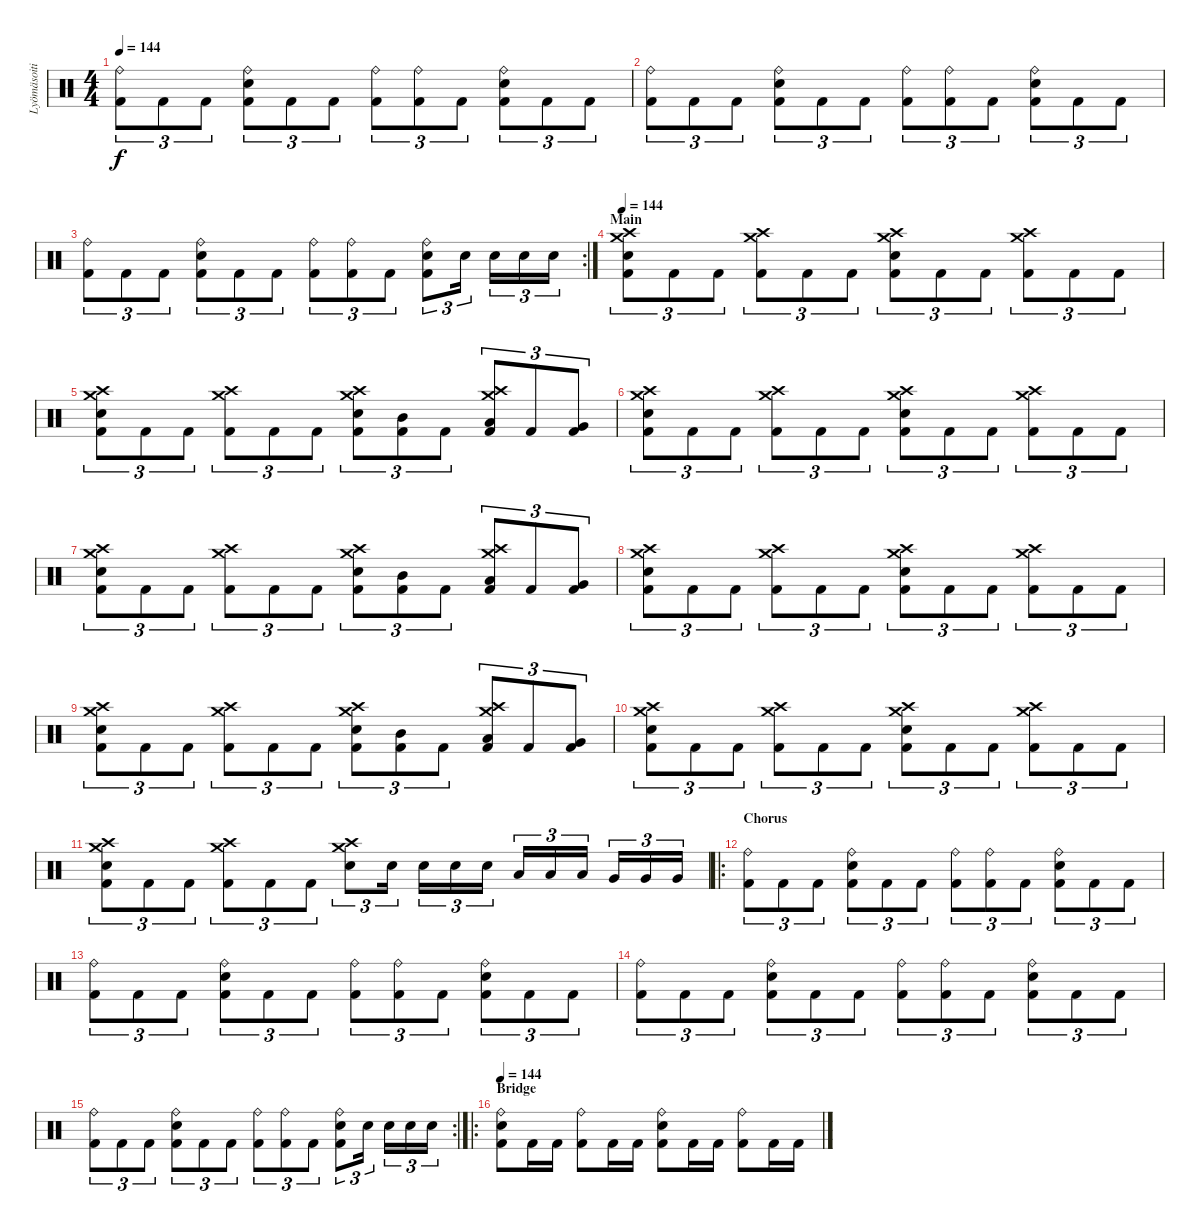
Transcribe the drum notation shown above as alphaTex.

\track ("Lyömäsoitin" "Lyömäsoiti") {instrument percussion}
\staff {score}
\articulation defaults
\ts (4 4)
\tempo 144
\clef neutral
\ks c
("Ride (bell)" "Kick (hit) 2").8{tu (3 2) dy f} "Kick (hit) 2".8{tu (3 2)} "Kick (hit) 2".8{tu (3 2)} ("Ride (bell)" "Snare (hit) 2" "Kick (hit) 2").8{tu (3 2)} "Kick (hit) 2".8{tu (3 2)} "Kick (hit) 2".8{tu (3 2)} ("Ride (bell)" "Kick (hit) 2").8{tu (3 2)} ("Ride (bell)" "Kick (hit) 2").8{tu (3 2)} "Kick (hit) 2".8{tu (3 2)} ("Ride (bell)" "Snare (hit) 2" "Kick (hit) 2").8{tu (3 2)} "Kick (hit) 2".8{tu (3 2)} "Kick (hit) 2".8{tu (3 2)} |
("Ride (bell)" "Kick (hit) 2").8{tu (3 2)} "Kick (hit) 2".8{tu (3 2)} "Kick (hit) 2".8{tu (3 2)} ("Ride (bell)" "Snare (hit) 2" "Kick (hit) 2").8{tu (3 2)} "Kick (hit) 2".8{tu (3 2)} "Kick (hit) 2".8{tu (3 2)} ("Ride (bell)" "Kick (hit) 2").8{tu (3 2)} ("Ride (bell)" "Kick (hit) 2").8{tu (3 2)} "Kick (hit) 2".8{tu (3 2)} ("Ride (bell)" "Snare (hit) 2" "Kick (hit) 2").8{tu (3 2)} "Kick (hit) 2".8{tu (3 2)} "Kick (hit) 2".8{tu (3 2)} |
\rc 2
("Ride (bell)" "Kick (hit) 2").8{tu (3 2)} "Kick (hit) 2".8{tu (3 2)} "Kick (hit) 2".8{tu (3 2)} ("Ride (bell)" "Snare (hit) 2" "Kick (hit) 2").8{tu (3 2)} "Kick (hit) 2".8{tu (3 2)} "Kick (hit) 2".8{tu (3 2)} ("Ride (bell)" "Kick (hit) 2").8{tu (3 2)} ("Ride (bell)" "Kick (hit) 2").8{tu (3 2)} "Kick (hit) 2".8{tu (3 2)} ("Ride (bell)" "Snare (hit) 2" "Kick (hit) 2").8{tu (3 2)} "Snare (hit) 2".16{tu (3 2)} "Snare (hit) 2".16{tu (3 2)} "Snare (hit) 2".16{tu (3 2)} "Snare (hit) 2".16{tu (3 2)} |
\section ("" "Main")
\tempo 144
("Crash medium (hit)" "Crash high (hit)" "Snare (hit) 2" "Kick (hit) 2").8{tu (3 2)} "Kick (hit) 2".8{tu (3 2)} "Kick (hit) 2".8{tu (3 2)} ("Crash medium (hit)" "Crash high (hit)" "Kick (hit) 2").8{tu (3 2)} "Kick (hit) 2".8{tu (3 2)} "Kick (hit) 2".8{tu (3 2)} ("Crash medium (hit)" "Crash high (hit)" "Snare (hit) 2" "Kick (hit) 2").8{tu (3 2)} "Kick (hit) 2".8{tu (3 2)} "Kick (hit) 2".8{tu (3 2)} ("Crash medium (hit)" "Crash high (hit)" "Kick (hit) 2").8{tu (3 2)} "Kick (hit) 2".8{tu (3 2)} "Kick (hit) 2".8{tu (3 2)} |
("Crash medium (hit)" "Crash high (hit)" "Snare (hit) 2" "Kick (hit) 2").8{tu (3 2)} "Kick (hit) 2".8{tu (3 2)} "Kick (hit) 2".8{tu (3 2)} ("Crash medium (hit)" "Crash high (hit)" "Kick (hit) 2").8{tu (3 2)} "Kick (hit) 2".8{tu (3 2)} "Kick (hit) 2".8{tu (3 2)} ("Crash medium (hit)" "Crash high (hit)" "Snare (hit) 2" "Kick (hit) 2").8{tu (3 2)} ("Mid Tom (hit)" "Kick (hit) 2").8{tu (3 2)} "Kick (hit) 2".8{tu (3 2)} ("Crash medium (hit)" "Crash high (hit)" "Low Tom (hit)" "Kick (hit) 2").8{tu (3 2)} "Kick (hit) 2".8{tu (3 2)} ("Very Low Tom (hit)" "Kick (hit) 2").8{tu (3 2)} |
("Crash medium (hit)" "Crash high (hit)" "Snare (hit) 2" "Kick (hit) 2").8{tu (3 2)} "Kick (hit) 2".8{tu (3 2)} "Kick (hit) 2".8{tu (3 2)} ("Crash medium (hit)" "Crash high (hit)" "Kick (hit) 2").8{tu (3 2)} "Kick (hit) 2".8{tu (3 2)} "Kick (hit) 2".8{tu (3 2)} ("Crash medium (hit)" "Crash high (hit)" "Snare (hit) 2" "Kick (hit) 2").8{tu (3 2)} "Kick (hit) 2".8{tu (3 2)} "Kick (hit) 2".8{tu (3 2)} ("Crash medium (hit)" "Crash high (hit)" "Kick (hit) 2").8{tu (3 2)} "Kick (hit) 2".8{tu (3 2)} "Kick (hit) 2".8{tu (3 2)} |
("Crash medium (hit)" "Crash high (hit)" "Snare (hit) 2" "Kick (hit) 2").8{tu (3 2)} "Kick (hit) 2".8{tu (3 2)} "Kick (hit) 2".8{tu (3 2)} ("Crash medium (hit)" "Crash high (hit)" "Kick (hit) 2").8{tu (3 2)} "Kick (hit) 2".8{tu (3 2)} "Kick (hit) 2".8{tu (3 2)} ("Crash medium (hit)" "Crash high (hit)" "Snare (hit) 2" "Kick (hit) 2").8{tu (3 2)} ("Mid Tom (hit)" "Kick (hit) 2").8{tu (3 2)} "Kick (hit) 2".8{tu (3 2)} ("Crash medium (hit)" "Crash high (hit)" "Low Tom (hit)" "Kick (hit) 2").8{tu (3 2)} "Kick (hit) 2".8{tu (3 2)} ("Very Low Tom (hit)" "Kick (hit) 2").8{tu (3 2)} |
("Crash medium (hit)" "Crash high (hit)" "Snare (hit) 2" "Kick (hit) 2").8{tu (3 2)} "Kick (hit) 2".8{tu (3 2)} "Kick (hit) 2".8{tu (3 2)} ("Crash medium (hit)" "Crash high (hit)" "Kick (hit) 2").8{tu (3 2)} "Kick (hit) 2".8{tu (3 2)} "Kick (hit) 2".8{tu (3 2)} ("Crash medium (hit)" "Crash high (hit)" "Snare (hit) 2" "Kick (hit) 2").8{tu (3 2)} "Kick (hit) 2".8{tu (3 2)} "Kick (hit) 2".8{tu (3 2)} ("Crash medium (hit)" "Crash high (hit)" "Kick (hit) 2").8{tu (3 2)} "Kick (hit) 2".8{tu (3 2)} "Kick (hit) 2".8{tu (3 2)} |
("Crash medium (hit)" "Crash high (hit)" "Snare (hit) 2" "Kick (hit) 2").8{tu (3 2)} "Kick (hit) 2".8{tu (3 2)} "Kick (hit) 2".8{tu (3 2)} ("Crash medium (hit)" "Crash high (hit)" "Kick (hit) 2").8{tu (3 2)} "Kick (hit) 2".8{tu (3 2)} "Kick (hit) 2".8{tu (3 2)} ("Crash medium (hit)" "Crash high (hit)" "Snare (hit) 2" "Kick (hit) 2").8{tu (3 2)} ("Mid Tom (hit)" "Kick (hit) 2").8{tu (3 2)} "Kick (hit) 2".8{tu (3 2)} ("Crash medium (hit)" "Crash high (hit)" "Low Tom (hit)" "Kick (hit) 2").8{tu (3 2)} "Kick (hit) 2".8{tu (3 2)} ("Very Low Tom (hit)" "Kick (hit) 2").8{tu (3 2)} |
("Crash medium (hit)" "Crash high (hit)" "Snare (hit) 2" "Kick (hit) 2").8{tu (3 2)} "Kick (hit) 2".8{tu (3 2)} "Kick (hit) 2".8{tu (3 2)} ("Crash medium (hit)" "Crash high (hit)" "Kick (hit) 2").8{tu (3 2)} "Kick (hit) 2".8{tu (3 2)} "Kick (hit) 2".8{tu (3 2)} ("Crash medium (hit)" "Crash high (hit)" "Snare (hit) 2" "Kick (hit) 2").8{tu (3 2)} "Kick (hit) 2".8{tu (3 2)} "Kick (hit) 2".8{tu (3 2)} ("Crash medium (hit)" "Crash high (hit)" "Kick (hit) 2").8{tu (3 2)} "Kick (hit) 2".8{tu (3 2)} "Kick (hit) 2".8{tu (3 2)} |
("Crash medium (hit)" "Crash high (hit)" "Snare (hit) 2" "Kick (hit) 2").8{tu (3 2)} "Kick (hit) 2".8{tu (3 2)} "Kick (hit) 2".8{tu (3 2)} ("Crash medium (hit)" "Crash high (hit)" "Kick (hit) 2").8{tu (3 2)} "Kick (hit) 2".8{tu (3 2)} "Kick (hit) 2".8{tu (3 2)} ("Crash medium (hit)" "Crash high (hit)" "Snare (hit) 2").8{tu (3 2)} "Snare (hit) 2".16{tu (3 2)} "Snare (hit) 2".16{tu (3 2)} "Snare (hit) 2".16{tu (3 2)} "Snare (hit) 2".16{tu (3 2)} "Low Tom (hit)".16{tu (3 2)} "Low Tom (hit)".16{tu (3 2)} "Low Tom (hit)".16{tu (3 2)} "Very Low Tom (hit)".16{tu (3 2)} "Very Low Tom (hit)".16{tu (3 2)} "Very Low Tom (hit)".16{tu (3 2)} |
\ro
\section ("" "Chorus")
("Ride (bell)" "Kick (hit) 2").8{tu (3 2)} "Kick (hit) 2".8{tu (3 2)} "Kick (hit) 2".8{tu (3 2)} ("Ride (bell)" "Snare (hit) 2" "Kick (hit) 2").8{tu (3 2)} "Kick (hit) 2".8{tu (3 2)} "Kick (hit) 2".8{tu (3 2)} ("Ride (bell)" "Kick (hit) 2").8{tu (3 2)} ("Ride (bell)" "Kick (hit) 2").8{tu (3 2)} "Kick (hit) 2".8{tu (3 2)} ("Ride (bell)" "Snare (hit) 2" "Kick (hit) 2").8{tu (3 2)} "Kick (hit) 2".8{tu (3 2)} "Kick (hit) 2".8{tu (3 2)} |
("Ride (bell)" "Kick (hit) 2").8{tu (3 2)} "Kick (hit) 2".8{tu (3 2)} "Kick (hit) 2".8{tu (3 2)} ("Ride (bell)" "Snare (hit) 2" "Kick (hit) 2").8{tu (3 2)} "Kick (hit) 2".8{tu (3 2)} "Kick (hit) 2".8{tu (3 2)} ("Ride (bell)" "Kick (hit) 2").8{tu (3 2)} ("Ride (bell)" "Kick (hit) 2").8{tu (3 2)} "Kick (hit) 2".8{tu (3 2)} ("Ride (bell)" "Snare (hit) 2" "Kick (hit) 2").8{tu (3 2)} "Kick (hit) 2".8{tu (3 2)} "Kick (hit) 2".8{tu (3 2)} |
("Ride (bell)" "Kick (hit) 2").8{tu (3 2)} "Kick (hit) 2".8{tu (3 2)} "Kick (hit) 2".8{tu (3 2)} ("Ride (bell)" "Snare (hit) 2" "Kick (hit) 2").8{tu (3 2)} "Kick (hit) 2".8{tu (3 2)} "Kick (hit) 2".8{tu (3 2)} ("Ride (bell)" "Kick (hit) 2").8{tu (3 2)} ("Ride (bell)" "Kick (hit) 2").8{tu (3 2)} "Kick (hit) 2".8{tu (3 2)} ("Ride (bell)" "Snare (hit) 2" "Kick (hit) 2").8{tu (3 2)} "Kick (hit) 2".8{tu (3 2)} "Kick (hit) 2".8{tu (3 2)} |
\rc 2
("Ride (bell)" "Kick (hit) 2").8{tu (3 2)} "Kick (hit) 2".8{tu (3 2)} "Kick (hit) 2".8{tu (3 2)} ("Ride (bell)" "Snare (hit) 2" "Kick (hit) 2").8{tu (3 2)} "Kick (hit) 2".8{tu (3 2)} "Kick (hit) 2".8{tu (3 2)} ("Ride (bell)" "Kick (hit) 2").8{tu (3 2)} ("Ride (bell)" "Kick (hit) 2").8{tu (3 2)} "Kick (hit) 2".8{tu (3 2)} ("Ride (bell)" "Snare (hit) 2" "Kick (hit) 2").8{tu (3 2)} "Snare (hit) 2".16{tu (3 2)} "Snare (hit) 2".16{tu (3 2)} "Snare (hit) 2".16{tu (3 2)} "Snare (hit) 2".16{tu (3 2)} |
\ro
\section ("" "Bridge")
\tempo 144
("Ride (bell)" "Snare (hit) 2" "Kick (hit) 2").8 "Kick (hit) 2".16 "Kick (hit) 2".16 ("Ride (bell)" "Kick (hit) 2").8 "Kick (hit) 2".16 "Kick (hit) 2".16 ("Ride (bell)" "Snare (hit) 2" "Kick (hit) 2").8 "Kick (hit) 2".16 "Kick (hit) 2".16 ("Ride (bell)" "Kick (hit) 2").8 "Kick (hit) 2".16 "Kick (hit) 2".16
